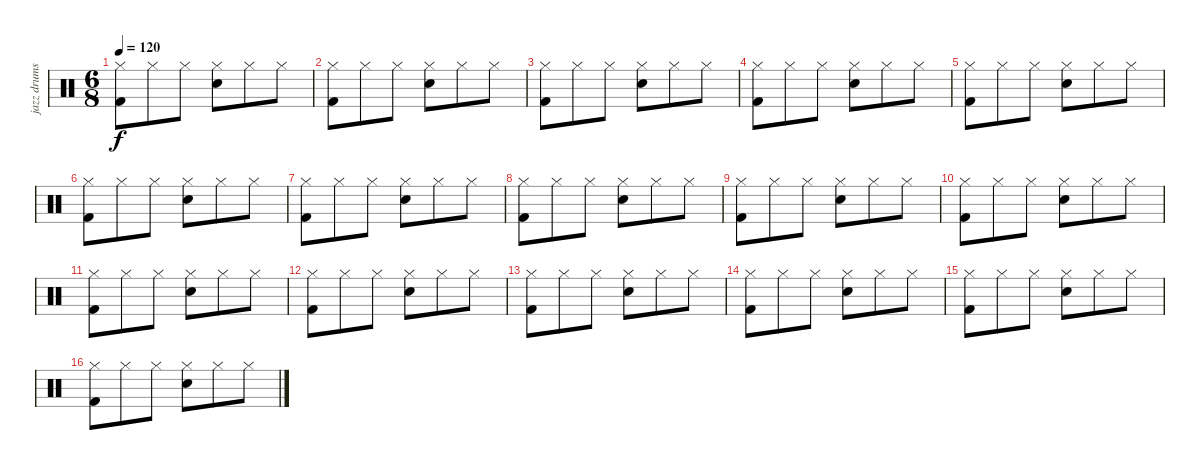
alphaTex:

\track ("jazz drumset" "jazz drums") {instrument percussion}
\staff {score}
\articulation defaults
\ts (6 8)
\tempo 120
\clef neutral
\ks c
("Hi-Hat (closed)" "Kick (hit) 2").8{dy f} "Hi-Hat (closed)".8 "Hi-Hat (closed)".8 ("Hi-Hat (closed)" "Snare (hit) 2").8 "Hi-Hat (closed)".8 "Hi-Hat (closed)".8 |
("Hi-Hat (closed)" "Kick (hit) 2").8 "Hi-Hat (closed)".8 "Hi-Hat (closed)".8 ("Hi-Hat (closed)" "Snare (hit) 2").8 "Hi-Hat (closed)".8 "Hi-Hat (closed)".8 |
("Hi-Hat (closed)" "Kick (hit) 2").8 "Hi-Hat (closed)".8 "Hi-Hat (closed)".8 ("Hi-Hat (closed)" "Snare (hit) 2").8 "Hi-Hat (closed)".8 "Hi-Hat (closed)".8 |
("Hi-Hat (closed)" "Kick (hit) 2").8 "Hi-Hat (closed)".8 "Hi-Hat (closed)".8 ("Hi-Hat (closed)" "Snare (hit) 2").8 "Hi-Hat (closed)".8 "Hi-Hat (closed)".8 |
("Hi-Hat (closed)" "Kick (hit) 2").8 "Hi-Hat (closed)".8 "Hi-Hat (closed)".8 ("Hi-Hat (closed)" "Snare (hit) 2").8 "Hi-Hat (closed)".8 "Hi-Hat (closed)".8 |
("Hi-Hat (closed)" "Kick (hit) 2").8 "Hi-Hat (closed)".8 "Hi-Hat (closed)".8 ("Hi-Hat (closed)" "Snare (hit) 2").8 "Hi-Hat (closed)".8 "Hi-Hat (closed)".8 |
("Hi-Hat (closed)" "Kick (hit) 2").8 "Hi-Hat (closed)".8 "Hi-Hat (closed)".8 ("Hi-Hat (closed)" "Snare (hit) 2").8 "Hi-Hat (closed)".8 "Hi-Hat (closed)".8 |
("Hi-Hat (closed)" "Kick (hit) 2").8 "Hi-Hat (closed)".8 "Hi-Hat (closed)".8 ("Hi-Hat (closed)" "Snare (hit) 2").8 "Hi-Hat (closed)".8 "Hi-Hat (closed)".8 |
("Hi-Hat (closed)" "Kick (hit) 2").8 "Hi-Hat (closed)".8 "Hi-Hat (closed)".8 ("Hi-Hat (closed)" "Snare (hit) 2").8 "Hi-Hat (closed)".8 "Hi-Hat (closed)".8 |
("Hi-Hat (closed)" "Kick (hit) 2").8 "Hi-Hat (closed)".8 "Hi-Hat (closed)".8 ("Hi-Hat (closed)" "Snare (hit) 2").8 "Hi-Hat (closed)".8 "Hi-Hat (closed)".8 |
("Hi-Hat (closed)" "Kick (hit) 2").8 "Hi-Hat (closed)".8 "Hi-Hat (closed)".8 ("Hi-Hat (closed)" "Snare (hit) 2").8 "Hi-Hat (closed)".8 "Hi-Hat (closed)".8 |
("Hi-Hat (closed)" "Kick (hit) 2").8 "Hi-Hat (closed)".8 "Hi-Hat (closed)".8 ("Hi-Hat (closed)" "Snare (hit) 2").8 "Hi-Hat (closed)".8 "Hi-Hat (closed)".8 |
("Hi-Hat (closed)" "Kick (hit) 2").8 "Hi-Hat (closed)".8 "Hi-Hat (closed)".8 ("Hi-Hat (closed)" "Snare (hit) 2").8 "Hi-Hat (closed)".8 "Hi-Hat (closed)".8 |
("Hi-Hat (closed)" "Kick (hit) 2").8 "Hi-Hat (closed)".8 "Hi-Hat (closed)".8 ("Hi-Hat (closed)" "Snare (hit) 2").8 "Hi-Hat (closed)".8 "Hi-Hat (closed)".8 |
("Hi-Hat (closed)" "Kick (hit) 2").8 "Hi-Hat (closed)".8 "Hi-Hat (closed)".8 ("Hi-Hat (closed)" "Snare (hit) 2").8 "Hi-Hat (closed)".8 "Hi-Hat (closed)".8 |
("Hi-Hat (closed)" "Kick (hit) 2").8 "Hi-Hat (closed)".8 "Hi-Hat (closed)".8 ("Hi-Hat (closed)" "Snare (hit) 2").8 "Hi-Hat (closed)".8 "Hi-Hat (closed)".8
